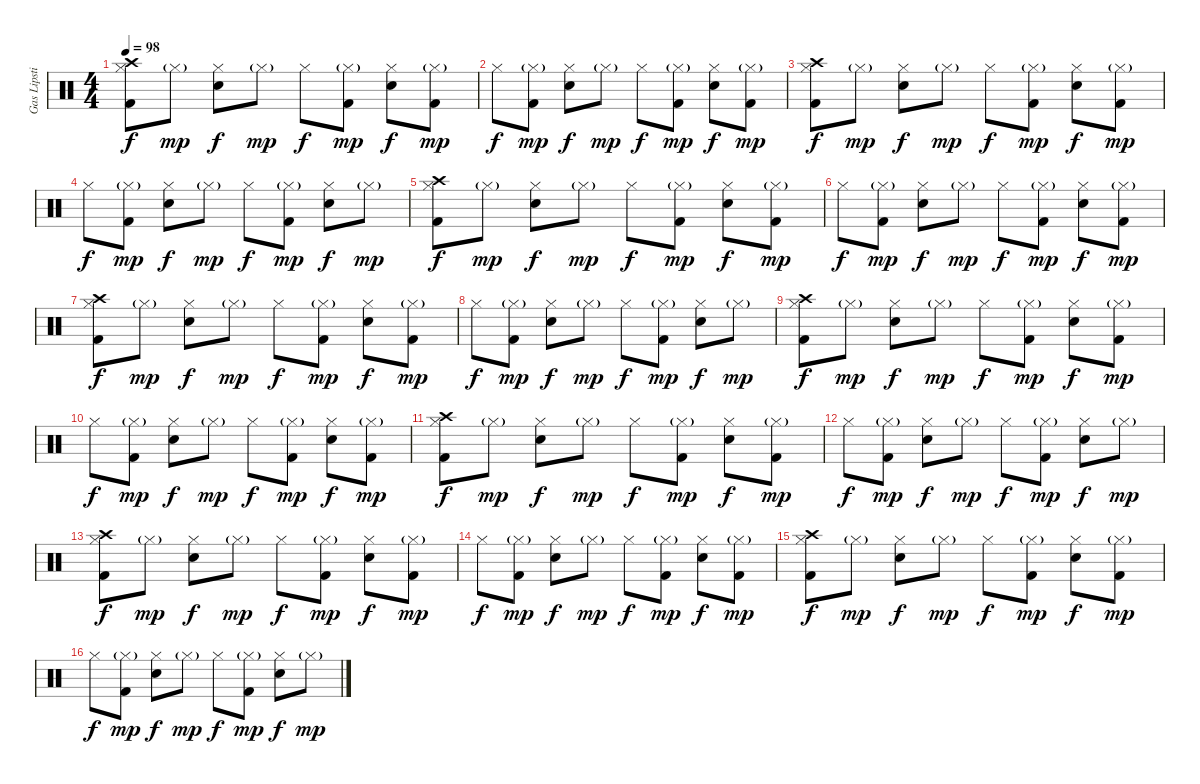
\track ("Gas Lipstick (Drums)" "Gas Lipsti") {instrument percussion}
\staff {score}
\articulation defaults
\ts (4 4)
\tempo 98
\clef neutral
\ks c
("Crash high (hit)" "Hi-Hat (closed)" "Kick (hit) 2").8{dy f} "Hi-Hat (closed)"{g}.8{dy mp} ("Hi-Hat (closed)" "Snare (hit) 2").8{dy f} "Hi-Hat (closed)"{g}.8{dy mp} "Hi-Hat (closed)".8{dy f} ("Hi-Hat (closed)"{g} "Kick (hit) 2").8{dy mp} ("Hi-Hat (closed)" "Snare (hit) 2").8{dy f} ("Hi-Hat (closed)"{g} "Kick (hit) 2").8{dy mp} |
"Hi-Hat (closed)".8{dy f} ("Hi-Hat (closed)"{g} "Kick (hit) 2").8{dy mp} ("Hi-Hat (closed)" "Snare (hit) 2").8{dy f} "Hi-Hat (closed)"{g}.8{dy mp} "Hi-Hat (closed)".8{dy f} ("Hi-Hat (closed)"{g} "Kick (hit) 2").8{dy mp} ("Hi-Hat (closed)" "Snare (hit) 2").8{dy f} ("Hi-Hat (closed)"{g} "Kick (hit) 2").8{dy mp} |
("Crash high (hit)" "Hi-Hat (closed)" "Kick (hit) 2").8{dy f} "Hi-Hat (closed)"{g}.8{dy mp} ("Hi-Hat (closed)" "Snare (hit) 2").8{dy f} "Hi-Hat (closed)"{g}.8{dy mp} "Hi-Hat (closed)".8{dy f} ("Hi-Hat (closed)"{g} "Kick (hit) 2").8{dy mp} ("Hi-Hat (closed)" "Snare (hit) 2").8{dy f} ("Hi-Hat (closed)"{g} "Kick (hit) 2").8{dy mp} |
"Hi-Hat (closed)".8{dy f} ("Hi-Hat (closed)"{g} "Kick (hit) 2").8{dy mp} ("Hi-Hat (closed)" "Snare (hit) 2").8{dy f} "Hi-Hat (closed)"{g}.8{dy mp} "Hi-Hat (closed)".8{dy f} ("Hi-Hat (closed)"{g} "Kick (hit) 2").8{dy mp} ("Hi-Hat (closed)" "Snare (hit) 2").8{dy f} "Hi-Hat (closed)"{g}.8{dy mp} |
("Crash high (hit)" "Hi-Hat (closed)" "Kick (hit) 2").8{dy f} "Hi-Hat (closed)"{g}.8{dy mp} ("Hi-Hat (closed)" "Snare (hit) 2").8{dy f} "Hi-Hat (closed)"{g}.8{dy mp} "Hi-Hat (closed)".8{dy f} ("Hi-Hat (closed)"{g} "Kick (hit) 2").8{dy mp} ("Hi-Hat (closed)" "Snare (hit) 2").8{dy f} ("Hi-Hat (closed)"{g} "Kick (hit) 2").8{dy mp} |
"Hi-Hat (closed)".8{dy f} ("Hi-Hat (closed)"{g} "Kick (hit) 2").8{dy mp} ("Hi-Hat (closed)" "Snare (hit) 2").8{dy f} "Hi-Hat (closed)"{g}.8{dy mp} "Hi-Hat (closed)".8{dy f} ("Hi-Hat (closed)"{g} "Kick (hit) 2").8{dy mp} ("Hi-Hat (closed)" "Snare (hit) 2").8{dy f} ("Hi-Hat (closed)"{g} "Kick (hit) 2").8{dy mp} |
("Crash high (hit)" "Hi-Hat (closed)" "Kick (hit) 2").8{dy f} "Hi-Hat (closed)"{g}.8{dy mp} ("Hi-Hat (closed)" "Snare (hit) 2").8{dy f} "Hi-Hat (closed)"{g}.8{dy mp} "Hi-Hat (closed)".8{dy f} ("Hi-Hat (closed)"{g} "Kick (hit) 2").8{dy mp} ("Hi-Hat (closed)" "Snare (hit) 2").8{dy f} ("Hi-Hat (closed)"{g} "Kick (hit) 2").8{dy mp} |
"Hi-Hat (closed)".8{dy f} ("Hi-Hat (closed)"{g} "Kick (hit) 2").8{dy mp} ("Hi-Hat (closed)" "Snare (hit) 2").8{dy f} "Hi-Hat (closed)"{g}.8{dy mp} "Hi-Hat (closed)".8{dy f} ("Hi-Hat (closed)"{g} "Kick (hit) 2").8{dy mp} ("Hi-Hat (closed)" "Snare (hit) 2").8{dy f} "Hi-Hat (closed)"{g}.8{dy mp} |
("Crash high (hit)" "Hi-Hat (closed)" "Kick (hit) 2").8{dy f} "Hi-Hat (closed)"{g}.8{dy mp} ("Hi-Hat (closed)" "Snare (hit) 2").8{dy f} "Hi-Hat (closed)"{g}.8{dy mp} "Hi-Hat (closed)".8{dy f} ("Hi-Hat (closed)"{g} "Kick (hit) 2").8{dy mp} ("Hi-Hat (closed)" "Snare (hit) 2").8{dy f} ("Hi-Hat (closed)"{g} "Kick (hit) 2").8{dy mp} |
"Hi-Hat (closed)".8{dy f} ("Hi-Hat (closed)"{g} "Kick (hit) 2").8{dy mp} ("Hi-Hat (closed)" "Snare (hit) 2").8{dy f} "Hi-Hat (closed)"{g}.8{dy mp} "Hi-Hat (closed)".8{dy f} ("Hi-Hat (closed)"{g} "Kick (hit) 2").8{dy mp} ("Hi-Hat (closed)" "Snare (hit) 2").8{dy f} ("Hi-Hat (closed)"{g} "Kick (hit) 2").8{dy mp} |
("Crash high (hit)" "Hi-Hat (closed)" "Kick (hit) 2").8{dy f volume 6} "Hi-Hat (closed)"{g}.8{dy mp} ("Hi-Hat (closed)" "Snare (hit) 2").8{dy f} "Hi-Hat (closed)"{g}.8{dy mp} "Hi-Hat (closed)".8{dy f} ("Hi-Hat (closed)"{g} "Kick (hit) 2").8{dy mp} ("Hi-Hat (closed)" "Snare (hit) 2").8{dy f} ("Hi-Hat (closed)"{g} "Kick (hit) 2").8{dy mp} |
"Hi-Hat (closed)".8{dy f} ("Hi-Hat (closed)"{g} "Kick (hit) 2").8{dy mp} ("Hi-Hat (closed)" "Snare (hit) 2").8{dy f} "Hi-Hat (closed)"{g}.8{dy mp} "Hi-Hat (closed)".8{dy f} ("Hi-Hat (closed)"{g} "Kick (hit) 2").8{dy mp} ("Hi-Hat (closed)" "Snare (hit) 2").8{dy f} "Hi-Hat (closed)"{g}.8{dy mp} |
("Crash high (hit)" "Hi-Hat (closed)" "Kick (hit) 2").8{dy f} "Hi-Hat (closed)"{g}.8{dy mp} ("Hi-Hat (closed)" "Snare (hit) 2").8{dy f} "Hi-Hat (closed)"{g}.8{dy mp} "Hi-Hat (closed)".8{dy f} ("Hi-Hat (closed)"{g} "Kick (hit) 2").8{dy mp} ("Hi-Hat (closed)" "Snare (hit) 2").8{dy f} ("Hi-Hat (closed)"{g} "Kick (hit) 2").8{dy mp} |
"Hi-Hat (closed)".8{dy f} ("Hi-Hat (closed)"{g} "Kick (hit) 2").8{dy mp} ("Hi-Hat (closed)" "Snare (hit) 2").8{dy f} "Hi-Hat (closed)"{g}.8{dy mp} "Hi-Hat (closed)".8{dy f} ("Hi-Hat (closed)"{g} "Kick (hit) 2").8{dy mp} ("Hi-Hat (closed)" "Snare (hit) 2").8{dy f} ("Hi-Hat (closed)"{g} "Kick (hit) 2").8{dy mp} |
("Crash high (hit)" "Hi-Hat (closed)" "Kick (hit) 2").8{dy f volume 0} "Hi-Hat (closed)"{g}.8{dy mp} ("Hi-Hat (closed)" "Snare (hit) 2").8{dy f} "Hi-Hat (closed)"{g}.8{dy mp} "Hi-Hat (closed)".8{dy f} ("Hi-Hat (closed)"{g} "Kick (hit) 2").8{dy mp} ("Hi-Hat (closed)" "Snare (hit) 2").8{dy f} ("Hi-Hat (closed)"{g} "Kick (hit) 2").8{dy mp} |
"Hi-Hat (closed)".8{dy f} ("Hi-Hat (closed)"{g} "Kick (hit) 2").8{dy mp} ("Hi-Hat (closed)" "Snare (hit) 2").8{dy f} "Hi-Hat (closed)"{g}.8{dy mp} "Hi-Hat (closed)".8{dy f} ("Hi-Hat (closed)"{g} "Kick (hit) 2").8{dy mp} ("Hi-Hat (closed)" "Snare (hit) 2").8{dy f} "Hi-Hat (closed)"{g}.8{dy mp}
